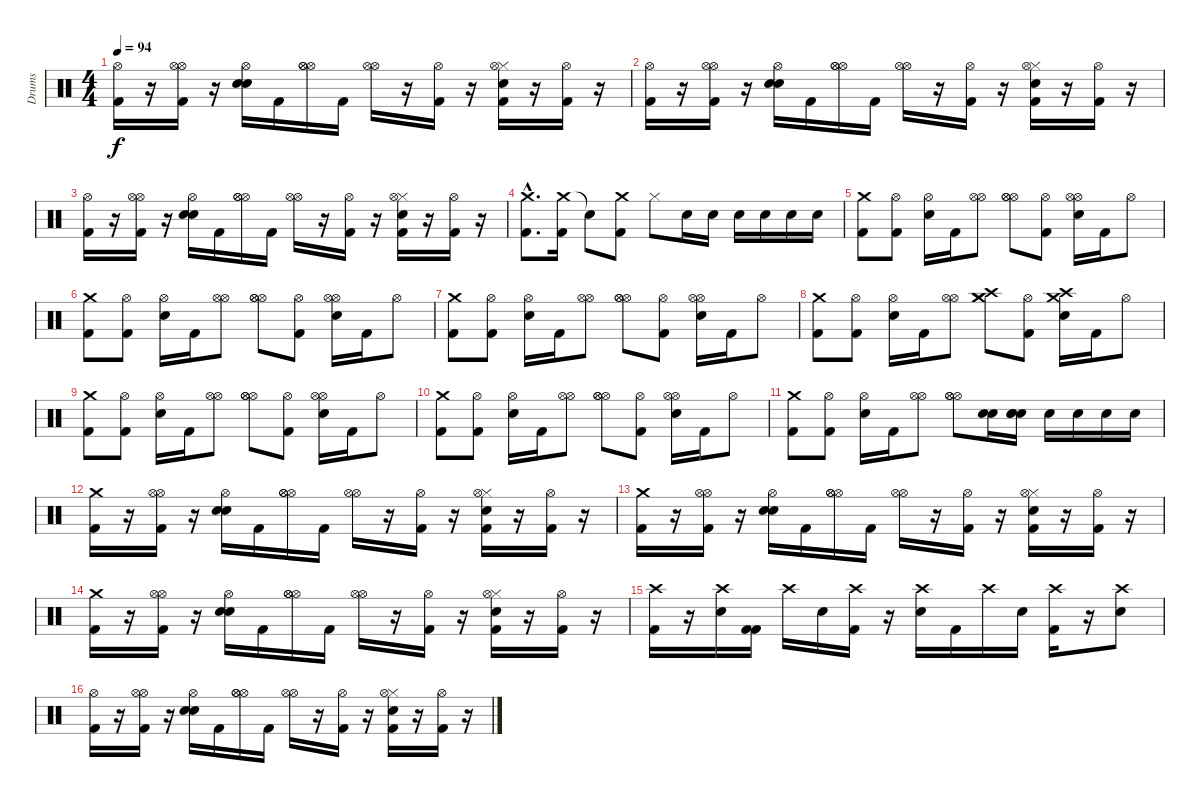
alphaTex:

\track ("Drums" "Drums") {instrument percussion}
\staff {score}
\articulation defaults
\ts (4 4)
\tempo 94
\clef neutral
\ks c
("Hi-Hat (open)" "Kick (hit) 2").16{dy f} r.16 ("Hi-Hat (open)" "Hi-Hat (open)" "Kick (hit) 2").16 r.16 ("Hi-Hat (open)" "Snare (hit) 2" "Snare (hit) 2").16 "Kick (hit) 2".16 ("Hi-Hat (open)" "Hi-Hat (open)" "Hi-Hat (open)").16 "Kick (hit) 2".16 ("Hi-Hat (open)" "Hi-Hat (open)").16 r.16 ("Hi-Hat (open)" "Kick (hit) 2").16 r.16 ("Hi-Hat (closed)" "Snare (hit) 2" "Hi-Hat (open)" "Kick (hit) 2").16 r.16 ("Hi-Hat (open)" "Kick (hit) 2").16 r.16 |
("Hi-Hat (open)" "Kick (hit) 2").16 r.16 ("Hi-Hat (open)" "Hi-Hat (open)" "Kick (hit) 2").16 r.16 ("Hi-Hat (open)" "Snare (hit) 2" "Snare (hit) 2").16 "Kick (hit) 2".16 ("Hi-Hat (open)" "Hi-Hat (open)" "Hi-Hat (open)").16 "Kick (hit) 2".16 ("Hi-Hat (open)" "Hi-Hat (open)").16 r.16 ("Hi-Hat (open)" "Kick (hit) 2").16 r.16 ("Hi-Hat (closed)" "Snare (hit) 2" "Hi-Hat (open)" "Kick (hit) 2").16 r.16 ("Hi-Hat (open)" "Kick (hit) 2").16 r.16 |
("Hi-Hat (open)" "Kick (hit) 2").16 r.16 ("Hi-Hat (open)" "Hi-Hat (open)" "Kick (hit) 2").16 r.16 ("Hi-Hat (open)" "Snare (hit) 2" "Snare (hit) 2").16 "Kick (hit) 2".16 ("Hi-Hat (open)" "Hi-Hat (open)" "Hi-Hat (open)").16 "Kick (hit) 2".16 ("Hi-Hat (open)" "Hi-Hat (open)").16 r.16 ("Hi-Hat (open)" "Kick (hit) 2").16 r.16 ("Hi-Hat (closed)" "Snare (hit) 2" "Hi-Hat (open)" "Kick (hit) 2").16 r.16 ("Hi-Hat (open)" "Kick (hit) 2").16 r.16 |
("Crash medium (hit)"{hac} "Kick (hit) 2"{hac}).8{d volume 16} ("Crash medium (hit)" "Kick (hit) 2").16 "Snare (hit)"{t}.8 ("Crash medium (hit)" "Kick (hit) 2").8 "Hi-Hat (closed)".8 "Snare (hit) 2".16 "Snare (hit) 2".16 "Snare (hit) 2".16 "Snare (hit) 2".16 "Snare (hit) 2".16 "Snare (hit) 2".16 |
("Crash medium (hit)" "Kick (hit) 2").8 ("Kick (hit) 2" "Hi-Hat (open)").8 ("Hi-Hat (open)" "Snare (hit) 2").16 "Kick (hit) 2".16 ("Hi-Hat (open)" "Hi-Hat (open)").8 ("Hi-Hat (open)" "Hi-Hat (open)" "Hi-Hat (open)").8 ("Hi-Hat (open)" "Kick (hit) 2").8 ("Hi-Hat (open)" "Snare (hit) 2" "Hi-Hat (open)").16 "Kick (hit) 2".16 "Hi-Hat (open)".8 |
("Crash medium (hit)" "Kick (hit) 2").8 ("Kick (hit) 2" "Hi-Hat (open)").8 ("Hi-Hat (open)" "Snare (hit) 2").16 "Kick (hit) 2".16 ("Hi-Hat (open)" "Hi-Hat (open)").8 ("Hi-Hat (open)" "Hi-Hat (open)" "Hi-Hat (open)").8 ("Hi-Hat (open)" "Kick (hit) 2").8 ("Hi-Hat (open)" "Snare (hit) 2" "Hi-Hat (open)").16 "Kick (hit) 2".16 "Hi-Hat (open)".8 |
("Crash medium (hit)" "Kick (hit) 2").8 ("Kick (hit) 2" "Hi-Hat (open)").8 ("Hi-Hat (open)" "Snare (hit) 2").16 "Kick (hit) 2".16 ("Hi-Hat (open)" "Hi-Hat (open)").8 ("Hi-Hat (open)" "Hi-Hat (open)" "Hi-Hat (open)").8 ("Hi-Hat (open)" "Kick (hit) 2").8 ("Hi-Hat (open)" "Snare (hit) 2" "Hi-Hat (open)").16 "Kick (hit) 2".16 "Hi-Hat (open)".8 |
("Crash medium (hit)" "Kick (hit) 2").8 ("Kick (hit) 2" "Hi-Hat (open)").8 ("Hi-Hat (open)" "Snare (hit) 2").16 "Kick (hit) 2".16 ("Hi-Hat (open)" "Hi-Hat (open)").8 ("Crash medium (hit)" "Crash high (hit)" "Crash medium (hit)").8{volume 16} ("Hi-Hat (open)" "Kick (hit) 2").8 ("Crash medium (hit)" "Snare (hit) 2" "Crash high (hit)").16 "Kick (hit) 2".16 "Hi-Hat (open)".8 |
("Crash medium (hit)" "Kick (hit) 2").8 ("Kick (hit) 2" "Hi-Hat (open)").8 ("Hi-Hat (open)" "Snare (hit) 2").16 "Kick (hit) 2".16 ("Hi-Hat (open)" "Hi-Hat (open)").8 ("Hi-Hat (open)" "Hi-Hat (open)" "Hi-Hat (open)").8 ("Hi-Hat (open)" "Kick (hit) 2").8 ("Hi-Hat (open)" "Snare (hit) 2" "Hi-Hat (open)").16 "Kick (hit) 2".16 "Hi-Hat (open)".8 |
("Crash medium (hit)" "Kick (hit) 2").8 ("Kick (hit) 2" "Hi-Hat (open)").8 ("Hi-Hat (open)" "Snare (hit) 2").16 "Kick (hit) 2".16 ("Hi-Hat (open)" "Hi-Hat (open)").8 ("Hi-Hat (open)" "Hi-Hat (open)" "Hi-Hat (open)").8 ("Hi-Hat (open)" "Kick (hit) 2").8 ("Hi-Hat (open)" "Snare (hit) 2" "Hi-Hat (open)").16 "Kick (hit) 2".16 "Hi-Hat (open)".8 |
("Crash medium (hit)" "Kick (hit) 2").8{volume 14} ("Kick (hit) 2" "Hi-Hat (open)").8 ("Hi-Hat (open)" "Snare (hit) 2").16 "Kick (hit) 2".16 ("Hi-Hat (open)" "Hi-Hat (open)").8 ("Hi-Hat (open)" "Hi-Hat (open)" "Hi-Hat (open)").8 ("Snare (hit) 2" "Snare (hit) 2").16 ("Snare (hit) 2" "Snare (hit) 2" "Snare (hit) 2").16 "Snare (hit) 2".16 "Snare (hit) 2".16 "Snare (hit) 2".16 "Snare (hit) 2".16 |
("Crash medium (hit)" "Kick (hit) 2").16{volume 16} r.16 ("Hi-Hat (open)" "Hi-Hat (open)" "Kick (hit) 2").16 r.16 ("Hi-Hat (open)" "Snare (hit) 2" "Snare (hit) 2").16 "Kick (hit) 2".16 ("Hi-Hat (open)" "Hi-Hat (open)" "Hi-Hat (open)").16 "Kick (hit) 2".16 ("Hi-Hat (open)" "Hi-Hat (open)").16 r.16 ("Hi-Hat (open)" "Kick (hit) 2").16 r.16 ("Hi-Hat (closed)" "Snare (hit) 2" "Hi-Hat (open)" "Kick (hit) 2").16 r.16 ("Hi-Hat (open)" "Kick (hit) 2").16 r.16 |
("Crash medium (hit)" "Kick (hit) 2").16{volume 16} r.16 ("Hi-Hat (open)" "Hi-Hat (open)" "Kick (hit) 2").16 r.16 ("Hi-Hat (open)" "Snare (hit) 2" "Snare (hit) 2").16 "Kick (hit) 2".16 ("Hi-Hat (open)" "Hi-Hat (open)" "Hi-Hat (open)").16 "Kick (hit) 2".16 ("Hi-Hat (open)" "Hi-Hat (open)").16 r.16 ("Hi-Hat (open)" "Kick (hit) 2").16 r.16 ("Hi-Hat (closed)" "Snare (hit) 2" "Hi-Hat (open)" "Kick (hit) 2").16 r.16 ("Hi-Hat (open)" "Kick (hit) 2").16 r.16 |
("Crash medium (hit)" "Kick (hit) 2").16{volume 16} r.16 ("Hi-Hat (open)" "Hi-Hat (open)" "Kick (hit) 2").16 r.16 ("Hi-Hat (open)" "Snare (hit) 2" "Snare (hit) 2").16 "Kick (hit) 2".16 ("Hi-Hat (open)" "Hi-Hat (open)" "Hi-Hat (open)").16 "Kick (hit) 2".16 ("Hi-Hat (open)" "Hi-Hat (open)").16 r.16 ("Hi-Hat (open)" "Kick (hit) 2").16 r.16 ("Hi-Hat (closed)" "Snare (hit) 2" "Hi-Hat (open)" "Kick (hit) 2").16 r.16 ("Hi-Hat (open)" "Kick (hit) 2").16 r.16 |
("Crash high (hit)" "Kick (hit) 2").16 r.16 ("Crash high (hit)" "Snare (hit) 2").16 ("Kick (hit) 2" "Kick (hit) 2").16 "Crash high (hit)".16 "Snare (hit) 2".16 ("Crash high (hit)" "Kick (hit) 2").16 r.16 ("Crash high (hit)" "Snare (hit) 2").16 "Kick (hit) 2".16 "Crash high (hit)".16 "Snare (hit) 2".16 ("Kick (hit) 2" "Crash high (hit)").16 r.16 ("Crash high (hit)" "Snare (hit) 2").8 |
("Hi-Hat (open)" "Kick (hit) 2").16 r.16 ("Hi-Hat (open)" "Hi-Hat (open)" "Kick (hit) 2").16 r.16 ("Hi-Hat (open)" "Snare (hit) 2" "Snare (hit) 2").16 "Kick (hit) 2".16 ("Hi-Hat (open)" "Hi-Hat (open)" "Hi-Hat (open)").16 "Kick (hit) 2".16 ("Hi-Hat (open)" "Hi-Hat (open)").16 r.16 ("Hi-Hat (open)" "Kick (hit) 2").16 r.16 ("Hi-Hat (closed)" "Snare (hit) 2" "Hi-Hat (open)" "Kick (hit) 2").16 r.16 ("Hi-Hat (open)" "Kick (hit) 2").16 r.16
